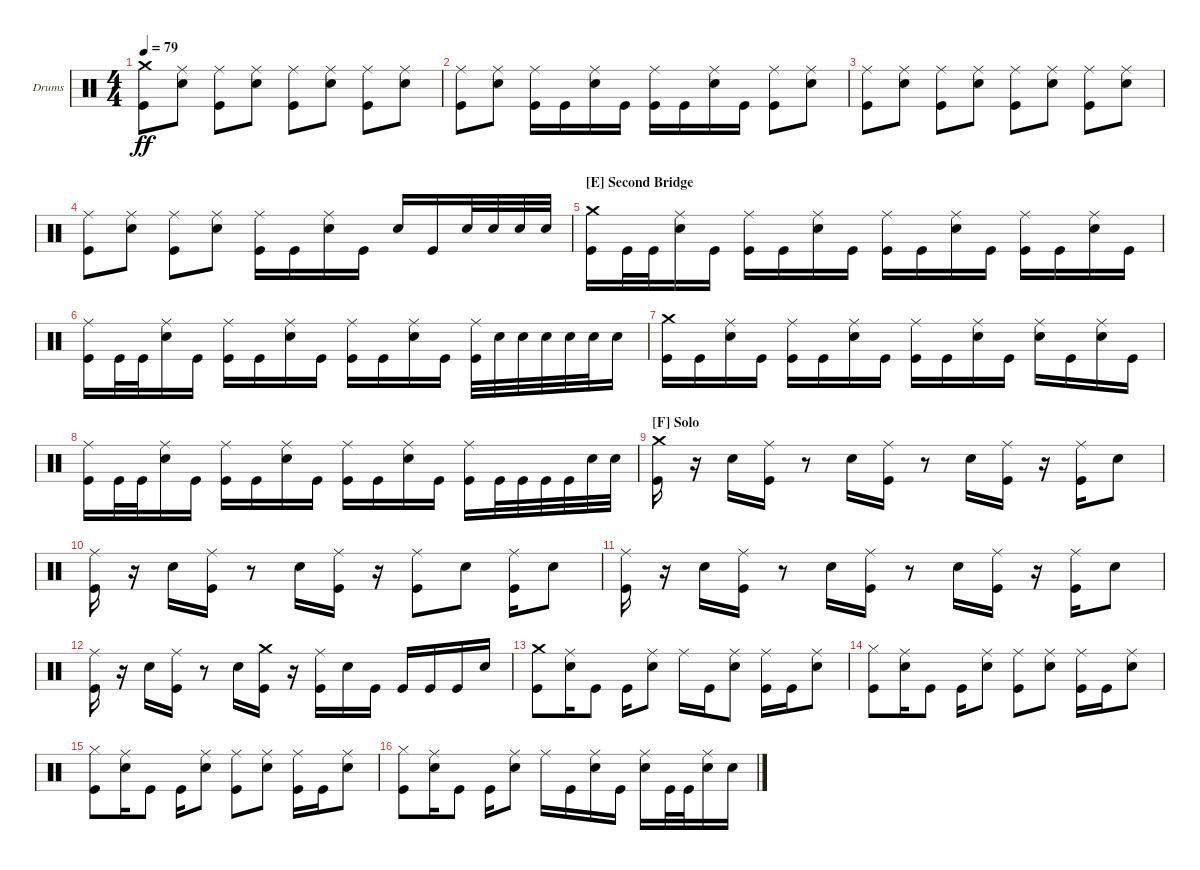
\bracketExtendMode groupsimilarinstruments
\firstSystemTrackNameOrientation horizontal
\otherSystemsTrackNameOrientation horizontal
\track ("Drums" "Drums") {instrument percussion}
\staff {score}
\articulation defaults
\ts (4 4)
\tempo 79
\clef neutral
\ks c
("Kick (hit)" "Crash medium (hit)").8{dy ff} ("Snare (hit) 2" "Ride (middle)").8 ("Kick (hit)" "Ride (middle)").8 ("Snare (hit) 2" "Ride (middle)").8 ("Kick (hit)" "Ride (middle)").8 ("Snare (hit) 2" "Ride (middle)").8 ("Kick (hit)" "Ride (middle)").8 ("Snare (hit) 2" "Ride (middle)").8 |
("Kick (hit)" "Ride (middle)").8 ("Snare (hit) 2" "Ride (middle)").8 ("Kick (hit)" "Ride (middle)").16 "Kick (hit)".16 ("Snare (hit) 2" "Ride (middle)").16 "Kick (hit)".16 ("Kick (hit)" "Ride (middle)").16 "Kick (hit)".16 ("Snare (hit) 2" "Ride (middle)").16 "Kick (hit)".16 ("Kick (hit)" "Ride (middle)").8 ("Snare (hit) 2" "Ride (middle)").8 |
("Kick (hit)" "Ride (middle)").8 ("Snare (hit) 2" "Ride (middle)").8 ("Kick (hit)" "Ride (middle)").8 ("Snare (hit) 2" "Ride (middle)").8 ("Kick (hit)" "Ride (middle)").8 ("Snare (hit) 2" "Ride (middle)").8 ("Kick (hit)" "Ride (middle)").8 ("Snare (hit) 2" "Ride (middle)").8 |
("Kick (hit)" "Ride (middle)").8 ("Snare (hit) 2" "Ride (middle)").8 ("Kick (hit)" "Ride (middle)").8 ("Snare (hit) 2" "Ride (middle)").8 ("Kick (hit)" "Ride (middle)").16 "Kick (hit)".16 ("Snare (hit) 2" "Ride (middle)").16 "Kick (hit)".16 "Snare (hit) 2".16 "Kick (hit)".16 "Snare (hit) 2".32 "Snare (hit) 2".32 "Snare (hit) 2".32 "Snare (hit) 2".32 |
\section ("E" "Second Bridge")
("Kick (hit)" "Crash medium (hit)").16 "Kick (hit)".32 "Kick (hit)".32 ("Snare (hit) 2" "Ride (middle)").16 "Kick (hit)".16 ("Kick (hit)" "Ride (middle)").16 "Kick (hit)".16 ("Snare (hit) 2" "Ride (middle)").16 "Kick (hit)".16 ("Kick (hit)" "Ride (middle)").16 "Kick (hit)".16 ("Snare (hit) 2" "Ride (middle)").16 "Kick (hit)".16 ("Kick (hit)" "Ride (middle)").16 "Kick (hit)".16 ("Snare (hit) 2" "Ride (middle)").16 "Kick (hit)".16 |
("Kick (hit)" "Ride (middle)").16 "Kick (hit)".32 "Kick (hit)".32 ("Snare (hit) 2" "Ride (middle)").16 "Kick (hit)".16 ("Kick (hit)" "Ride (middle)").16 "Kick (hit)".16 ("Snare (hit) 2" "Ride (middle)").16 "Kick (hit)".16 ("Kick (hit)" "Ride (middle)").16 "Kick (hit)".16 ("Snare (hit) 2" "Ride (middle)").16 "Kick (hit)".16 ("Kick (hit)" "Ride (middle)").32 "Snare (hit) 2".32 "Snare (hit) 2".32 "Snare (hit) 2".32 "Snare (hit) 2".32 "Snare (hit) 2".32 "Snare (hit) 2".16 |
("Kick (hit)" "Crash medium (hit)").16 "Kick (hit)".16 ("Snare (hit) 2" "Ride (middle)").16 "Kick (hit)".16 ("Kick (hit)" "Ride (middle)").16 "Kick (hit)".16 ("Snare (hit) 2" "Ride (middle)").16 "Kick (hit)".16 ("Kick (hit)" "Ride (middle)").16 "Kick (hit)".16 ("Snare (hit) 2" "Ride (middle)").16 "Kick (hit)".16 ("Ride (middle)" "Snare (hit) 2").16 "Kick (hit)".16 ("Snare (hit) 2" "Ride (middle)").16 "Kick (hit)".16 |
("Kick (hit)" "Ride (middle)").16 "Kick (hit)".32 "Kick (hit)".32 ("Snare (hit) 2" "Ride (middle)").16 "Kick (hit)".16 ("Kick (hit)" "Ride (middle)").16 "Kick (hit)".16 ("Snare (hit) 2" "Ride (middle)").16 "Kick (hit)".16 ("Kick (hit)" "Ride (middle)").16 "Kick (hit)".16 ("Snare (hit) 2" "Ride (middle)").16 "Kick (hit)".16 ("Ride (middle)" "Kick (hit)").16 "Kick (hit)".32 "Kick (hit)".32 "Kick (hit)".32 "Kick (hit)".32 "Snare (hit) 2".32 "Snare (hit) 2".32 |
\section ("F" "Solo")
("Kick (hit)" "Crash medium (hit)").16{beam split} r.16{beam split} "Snare (hit) 2".16 ("Kick (hit)" "Ride (middle)").16 r.8 "Snare (hit) 2".16 ("Kick (hit)" "Ride (middle)").16 r.8 "Snare (hit) 2".16 ("Kick (hit)" "Ride (middle)").16 r.16 ("Kick (hit)" "Ride (middle)").16 "Snare (hit) 2".8 |
("Kick (hit)" "Ride (middle)").16{beam split} r.16{beam split} "Snare (hit) 2".16 ("Kick (hit)" "Ride (middle)").16 r.8 "Snare (hit) 2".16 ("Kick (hit)" "Ride (middle)").16 r.16 ("Kick (hit)" "Ride (middle)").8 "Snare (hit) 2".8 ("Kick (hit)" "Ride (middle)").16 "Snare (hit) 2".8 |
("Kick (hit)" "Ride (middle)").16{beam split} r.16{beam split} "Snare (hit) 2".16 ("Kick (hit)" "Ride (middle)").16 r.8 "Snare (hit) 2".16 ("Kick (hit)" "Ride (middle)").16 r.8 "Snare (hit) 2".16 ("Kick (hit)" "Ride (middle)").16 r.16 ("Kick (hit)" "Ride (middle)").16 "Snare (hit) 2".8 |
("Kick (hit)" "Ride (middle)").16{beam split} r.16{beam split} "Snare (hit) 2".16 ("Kick (hit)" "Ride (middle)").16 r.8 "Snare (hit) 2".16 ("Kick (hit)" "Crash medium (hit)").16 r.16 ("Kick (hit)" "Ride (middle)").16 "Snare (hit) 2".16 "Kick (hit)".16 "Kick (hit)".16 "Kick (hit)".16 "Kick (hit)".16 "Snare (hit) 2".16 |
("Kick (hit)" "Crash medium (hit)").8 ("Snare (hit) 2" "Ride (middle)").16 "Kick (hit)".8 "Kick (hit)".16 ("Snare (hit) 2" "Ride (middle)").8 "Ride (middle)".16 "Kick (hit)".16 ("Snare (hit) 2" "Ride (middle)").8 ("Kick (hit)" "Ride (middle)").16 "Kick (hit)".16 ("Snare (hit) 2" "Ride (middle)").8 |
("Kick (hit)" "Hi-Hat (closed)").8 ("Snare (hit) 2" "Ride (middle)").16 "Kick (hit)".8 "Kick (hit)".16 ("Snare (hit) 2" "Ride (middle)").8 ("Ride (middle)" "Kick (hit)").8 ("Snare (hit) 2" "Ride (middle)").8 ("Kick (hit)" "Ride (middle)").16 "Kick (hit)".16 ("Snare (hit) 2" "Ride (middle)").8 |
("Kick (hit)" "Hi-Hat (closed)").8 ("Snare (hit) 2" "Ride (middle)").16 "Kick (hit)".8 "Kick (hit)".16 ("Snare (hit) 2" "Ride (middle)").8 ("Ride (middle)" "Kick (hit)").8 ("Snare (hit) 2" "Ride (middle)").8 ("Kick (hit)" "Ride (middle)").16 "Kick (hit)".16 ("Snare (hit) 2" "Ride (middle)").8 |
("Kick (hit)" "Hi-Hat (closed)").8 ("Snare (hit) 2" "Ride (middle)").16 "Kick (hit)".8 "Kick (hit)".16 ("Snare (hit) 2" "Ride (middle)").8 "Ride (middle)".16 "Kick (hit)".16 ("Snare (hit) 2" "Ride (middle)").16 "Kick (hit)".16 ("Ride (middle)" "Snare (hit) 2").16 "Kick (hit)".32 "Kick (hit)".32 ("Snare (hit) 2" "Ride (middle)").16 "Snare (hit) 2".16
